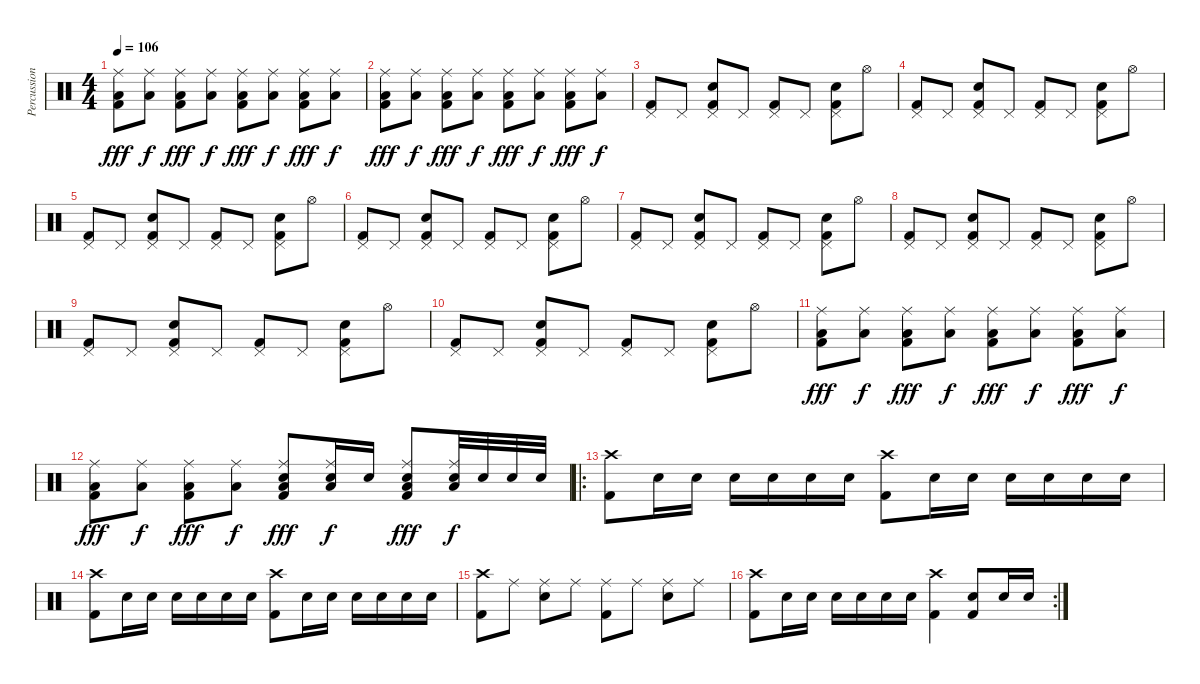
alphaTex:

\track ("Percussion" "Percussion") {instrument percussion}
\staff {score}
\articulation defaults
\ts (4 4)
\tempo 106
\clef neutral
\ks c
("Kick (hit) 2" "Low Floor Tom (hit)" "Ride (middle)").8{dy fff} ("Low Floor Tom (hit)" "Ride (middle)").8{dy f} ("Kick (hit) 2" "Low Floor Tom (hit)" "Ride (middle)").8{dy fff} ("Low Floor Tom (hit)" "Ride (middle)").8{dy f} ("Kick (hit) 2" "Low Floor Tom (hit)" "Ride (middle)").8{dy fff} ("Low Floor Tom (hit)" "Ride (middle)").8{dy f} ("Kick (hit) 2" "Low Floor Tom (hit)" "Ride (middle)").8{dy fff} ("Low Floor Tom (hit)" "Ride (middle)").8{dy f} |
("Kick (hit) 2" "Low Floor Tom (hit)" "Ride (middle)").8{dy fff} ("Low Floor Tom (hit)" "Ride (middle)").8{dy f} ("Kick (hit) 2" "Low Floor Tom (hit)" "Ride (middle)").8{dy fff} ("Low Floor Tom (hit)" "Ride (middle)").8{dy f} ("Kick (hit) 2" "Low Floor Tom (hit)" "Ride (middle)").8{dy fff} ("Low Floor Tom (hit)" "Ride (middle)").8{dy f} ("Kick (hit) 2" "Low Floor Tom (hit)" "Ride (middle)").8{dy fff} ("Low Floor Tom (hit)" "Ride (middle)").8{dy f} |
("Pedal Hi-Hat (hit)" "Kick (hit) 2").8 "Pedal Hi-Hat (hit)".8 ("Pedal Hi-Hat (hit)" "Electric Snare (hit)" "Kick (hit) 2").8 "Pedal Hi-Hat (hit)".8 ("Pedal Hi-Hat (hit)" "Kick (hit) 2").8 "Pedal Hi-Hat (hit)".8 ("Pedal Hi-Hat (hit)" "Electric Snare (hit)" "Kick (hit) 2").8 "Hi-Hat (open)".8 |
("Pedal Hi-Hat (hit)" "Kick (hit) 2").8 "Pedal Hi-Hat (hit)".8 ("Pedal Hi-Hat (hit)" "Electric Snare (hit)" "Kick (hit) 2").8 "Pedal Hi-Hat (hit)".8 ("Pedal Hi-Hat (hit)" "Kick (hit) 2").8 "Pedal Hi-Hat (hit)".8 ("Pedal Hi-Hat (hit)" "Electric Snare (hit)" "Kick (hit) 2").8 "Hi-Hat (open)".8 |
("Pedal Hi-Hat (hit)" "Kick (hit) 2").8 "Pedal Hi-Hat (hit)".8 ("Pedal Hi-Hat (hit)" "Electric Snare (hit)" "Kick (hit) 2").8 "Pedal Hi-Hat (hit)".8 ("Pedal Hi-Hat (hit)" "Kick (hit) 2").8 "Pedal Hi-Hat (hit)".8 ("Pedal Hi-Hat (hit)" "Electric Snare (hit)" "Kick (hit) 2").8 "Hi-Hat (open)".8 |
("Pedal Hi-Hat (hit)" "Kick (hit) 2").8 "Pedal Hi-Hat (hit)".8 ("Pedal Hi-Hat (hit)" "Electric Snare (hit)" "Kick (hit) 2").8 "Pedal Hi-Hat (hit)".8 ("Pedal Hi-Hat (hit)" "Kick (hit) 2").8 "Pedal Hi-Hat (hit)".8 ("Pedal Hi-Hat (hit)" "Electric Snare (hit)" "Kick (hit) 2").8 "Hi-Hat (open)".8 |
("Pedal Hi-Hat (hit)" "Kick (hit) 2").8 "Pedal Hi-Hat (hit)".8 ("Pedal Hi-Hat (hit)" "Electric Snare (hit)" "Kick (hit) 2").8 "Pedal Hi-Hat (hit)".8 ("Pedal Hi-Hat (hit)" "Kick (hit) 2").8 "Pedal Hi-Hat (hit)".8 ("Pedal Hi-Hat (hit)" "Electric Snare (hit)" "Kick (hit) 2").8 "Hi-Hat (open)".8 |
("Pedal Hi-Hat (hit)" "Kick (hit) 2").8 "Pedal Hi-Hat (hit)".8 ("Pedal Hi-Hat (hit)" "Electric Snare (hit)" "Kick (hit) 2").8 "Pedal Hi-Hat (hit)".8 ("Pedal Hi-Hat (hit)" "Kick (hit) 2").8 "Pedal Hi-Hat (hit)".8 ("Pedal Hi-Hat (hit)" "Electric Snare (hit)" "Kick (hit) 2").8 "Hi-Hat (open)".8 |
("Pedal Hi-Hat (hit)" "Kick (hit) 2").8 "Pedal Hi-Hat (hit)".8 ("Pedal Hi-Hat (hit)" "Electric Snare (hit)" "Kick (hit) 2").8 "Pedal Hi-Hat (hit)".8 ("Pedal Hi-Hat (hit)" "Kick (hit) 2").8 "Pedal Hi-Hat (hit)".8 ("Pedal Hi-Hat (hit)" "Electric Snare (hit)" "Kick (hit) 2").8 "Hi-Hat (open)".8 |
("Pedal Hi-Hat (hit)" "Kick (hit) 2").8 "Pedal Hi-Hat (hit)".8 ("Pedal Hi-Hat (hit)" "Electric Snare (hit)" "Kick (hit) 2").8 "Pedal Hi-Hat (hit)".8 ("Pedal Hi-Hat (hit)" "Kick (hit) 2").8 "Pedal Hi-Hat (hit)".8 ("Pedal Hi-Hat (hit)" "Electric Snare (hit)" "Kick (hit) 2").8 "Hi-Hat (open)".8 |
("Kick (hit) 2" "Low Floor Tom (hit)" "Ride (middle)").8{dy fff} ("Low Floor Tom (hit)" "Ride (middle)").8{dy f} ("Kick (hit) 2" "Low Floor Tom (hit)" "Ride (middle)").8{dy fff} ("Low Floor Tom (hit)" "Ride (middle)").8{dy f} ("Kick (hit) 2" "Low Floor Tom (hit)" "Ride (middle)").8{dy fff} ("Low Floor Tom (hit)" "Ride (middle)").8{dy f} ("Kick (hit) 2" "Low Floor Tom (hit)" "Ride (middle)").8{dy fff} ("Low Floor Tom (hit)" "Ride (middle)").8{dy f} |
("Kick (hit) 2" "Low Floor Tom (hit)" "Ride (middle)").8{dy fff} ("Low Floor Tom (hit)" "Ride (middle)").8{dy f} ("Kick (hit) 2" "Low Floor Tom (hit)" "Ride (middle)").8{dy fff} ("Low Floor Tom (hit)" "Ride (middle)").8{dy f} ("Kick (hit) 2" "Electric Snare (hit)" "Low Floor Tom (hit)" "Ride (middle)").8{dy fff} ("Electric Snare (hit)" "Low Floor Tom (hit)" "Ride (middle)").16{dy f} "Electric Snare (hit)".16 ("Kick (hit) 2" "Electric Snare (hit)" "Low Floor Tom (hit)" "Ride (middle)").8{dy fff} ("Electric Snare (hit)" "Low Floor Tom (hit)" "Ride (middle)").32{dy f} "Electric Snare (hit)".32 "Electric Snare (hit)".32 "Electric Snare (hit)".32 |
\ro
("Crash high (hit)" "Kick (hit) 2").8 "Electric Snare (hit)".16 "Electric Snare (hit)".16 "Electric Snare (hit)".16 "Electric Snare (hit)".16 "Electric Snare (hit)".16 "Electric Snare (hit)".16 ("Crash high (hit)" "Kick (hit) 2").8 "Electric Snare (hit)".16 "Electric Snare (hit)".16 "Electric Snare (hit)".16 "Electric Snare (hit)".16 "Electric Snare (hit)".16 "Electric Snare (hit)".16 |
("Crash high (hit)" "Kick (hit) 2").8 "Electric Snare (hit)".16 "Electric Snare (hit)".16 "Electric Snare (hit)".16 "Electric Snare (hit)".16 "Electric Snare (hit)".16 "Electric Snare (hit)".16 ("Crash high (hit)" "Kick (hit) 2").8 "Electric Snare (hit)".16 "Electric Snare (hit)".16 "Electric Snare (hit)".16 "Electric Snare (hit)".16 "Electric Snare (hit)".16 "Electric Snare (hit)".16 |
("Crash high (hit)" "Kick (hit) 2").8 "Ride (middle)".8 ("Ride (middle)" "Electric Snare (hit)").8 "Ride (middle)".8 ("Ride (middle)" "Kick (hit) 2").8 "Ride (middle)".8 ("Ride (middle)" "Electric Snare (hit)").8 "Ride (middle)".8 |
\rc 2
("Crash high (hit)" "Kick (hit) 2").8 "Electric Snare (hit)".16 "Electric Snare (hit)".16 "Electric Snare (hit)".16 "Electric Snare (hit)".16 "Electric Snare (hit)".16 "Electric Snare (hit)".16 ("Crash high (hit)" "Kick (hit) 2").4 ("Electric Snare (hit)" "Kick (hit) 2").8 "Electric Snare (hit)".16 "Electric Snare (hit)".16
